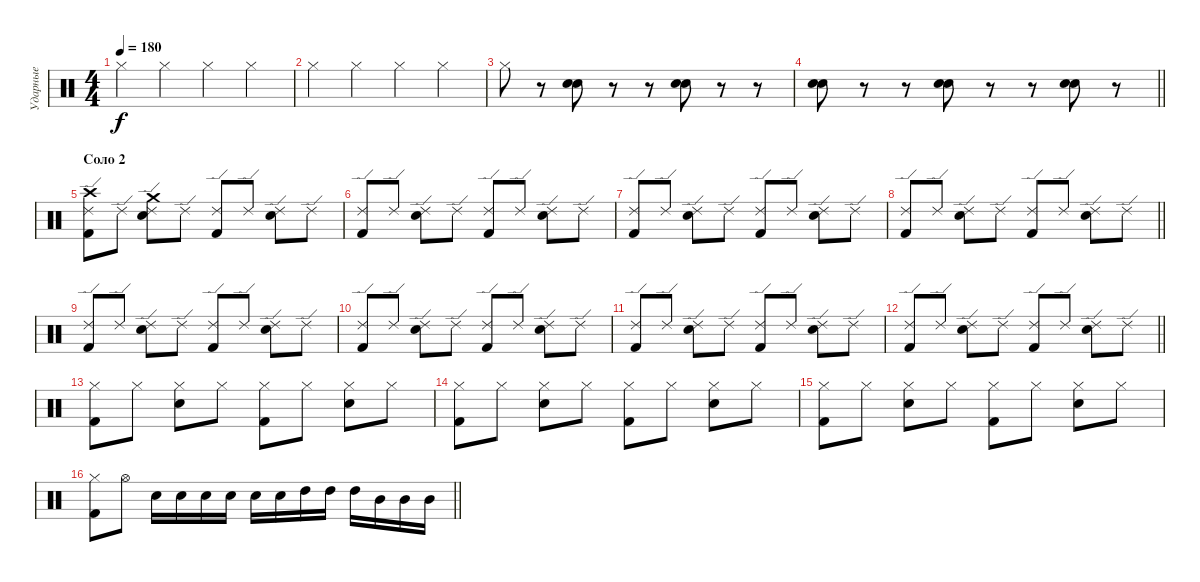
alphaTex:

\track ("Ударные" "Ударные") {instrument percussion}
\staff {score}
\articulation defaults
\ts (4 4)
\tempo 180
\clef neutral
\ks c "Hi-Hat (closed)".4{dy f} "Hi-Hat (closed)".4 "Hi-Hat (closed)".4 "Hi-Hat (closed)".4
|
"Hi-Hat (closed)".4 "Hi-Hat (closed)".4 "Hi-Hat (closed)".4 "Hi-Hat (closed)".4 |
"Hi-Hat (closed)".8 r.8 ("Electric Snare (hit)" "Electric Snare (hit)").8 r.8 r.8 ("Electric Snare (hit)" "Electric Snare (hit)").8 r.8 r.8 |
\barLineRight lightlight
("Electric Snare (hit)" "Electric Snare (hit)").8 r.8 r.8 ("Electric Snare (hit)" "Electric Snare (hit)").8 r.8 r.8 ("Electric Snare (hit)" "Electric Snare (hit)").8 r.8 |
\section ("" "Соло 2")
("Crash high (hit)" "Ride (edge) 2" "Kick (hit) 2").8 "Ride (edge) 2".8 ("Crash medium (hit)" "Ride (edge) 2" "Electric Snare (hit)").8 "Ride (edge) 2".8 ("Ride (edge) 2" "Kick (hit) 2").8 "Ride (edge) 2".8 ("Ride (edge) 2" "Electric Snare (hit)").8 "Ride (edge) 2".8 |
("Ride (edge) 2" "Kick (hit) 2").8 "Ride (edge) 2".8 ("Ride (edge) 2" "Electric Snare (hit)").8 "Ride (edge) 2".8 ("Ride (edge) 2" "Kick (hit) 2").8 "Ride (edge) 2".8 ("Ride (edge) 2" "Electric Snare (hit)").8 "Ride (edge) 2".8 |
("Ride (edge) 2" "Kick (hit) 2").8 "Ride (edge) 2".8 ("Ride (edge) 2" "Electric Snare (hit)").8 "Ride (edge) 2".8 ("Ride (edge) 2" "Kick (hit) 2").8 "Ride (edge) 2".8 ("Ride (edge) 2" "Electric Snare (hit)").8 "Ride (edge) 2".8 |
\barLineRight lightlight
("Ride (edge) 2" "Kick (hit) 2").8 "Ride (edge) 2".8 ("Ride (edge) 2" "Electric Snare (hit)").8 "Ride (edge) 2".8 ("Ride (edge) 2" "Kick (hit) 2").8 "Ride (edge) 2".8 ("Ride (edge) 2" "Electric Snare (hit)").8 "Ride (edge) 2".8 |
("Ride (edge) 2" "Kick (hit) 2").8 "Ride (edge) 2".8 ("Ride (edge) 2" "Electric Snare (hit)").8 "Ride (edge) 2".8 ("Ride (edge) 2" "Kick (hit) 2").8 "Ride (edge) 2".8 ("Ride (edge) 2" "Electric Snare (hit)").8 "Ride (edge) 2".8 |
("Ride (edge) 2" "Kick (hit) 2").8 "Ride (edge) 2".8 ("Ride (edge) 2" "Electric Snare (hit)").8 "Ride (edge) 2".8 ("Ride (edge) 2" "Kick (hit) 2").8 "Ride (edge) 2".8 ("Ride (edge) 2" "Electric Snare (hit)").8 "Ride (edge) 2".8 |
("Ride (edge) 2" "Kick (hit) 2").8 "Ride (edge) 2".8 ("Ride (edge) 2" "Electric Snare (hit)").8 "Ride (edge) 2".8 ("Ride (edge) 2" "Kick (hit) 2").8 "Ride (edge) 2".8 ("Ride (edge) 2" "Electric Snare (hit)").8 "Ride (edge) 2".8 |
\barLineRight lightlight
("Ride (edge) 2" "Kick (hit) 2").8 "Ride (edge) 2".8 ("Ride (edge) 2" "Electric Snare (hit)").8 "Ride (edge) 2".8 ("Ride (edge) 2" "Kick (hit) 2").8 "Ride (edge) 2".8 ("Ride (edge) 2" "Electric Snare (hit)").8 "Ride (edge) 2".8 |
("Hi-Hat (closed)" "Kick (hit) 2").8 "Hi-Hat (closed)".8 ("Hi-Hat (closed)" "Electric Snare (hit)").8 "Hi-Hat (closed)".8 ("Hi-Hat (closed)" "Kick (hit) 2").8 "Hi-Hat (closed)".8 ("Hi-Hat (closed)" "Electric Snare (hit)").8 "Hi-Hat (closed)".8 |
("Hi-Hat (closed)" "Kick (hit) 2").8 "Hi-Hat (closed)".8 ("Hi-Hat (closed)" "Electric Snare (hit)").8 "Hi-Hat (closed)".8 ("Hi-Hat (closed)" "Kick (hit) 2").8 "Hi-Hat (closed)".8 ("Hi-Hat (closed)" "Electric Snare (hit)").8 "Hi-Hat (closed)".8 |
("Hi-Hat (closed)" "Kick (hit) 2").8 "Hi-Hat (closed)".8 ("Hi-Hat (closed)" "Electric Snare (hit)").8 "Hi-Hat (closed)".8 ("Hi-Hat (closed)" "Kick (hit) 2").8 "Hi-Hat (closed)".8 ("Hi-Hat (closed)" "Electric Snare (hit)").8 "Hi-Hat (closed)".8 |
\barLineRight lightlight
("Hi-Hat (closed)" "Kick (hit) 2").8 "Hi-Hat (open)".8 "Electric Snare (hit)".16 "Electric Snare (hit)".16 "Electric Snare (hit)".16 "Electric Snare (hit)".16 "Electric Snare (hit)".16 "Electric Snare (hit)".16 "High Tom (hit)".16 "High Tom (hit)".16 "High Tom (hit)".16 "Mid Tom (hit)".16 "Mid Tom (hit)".16 "Mid Tom (hit)".16
